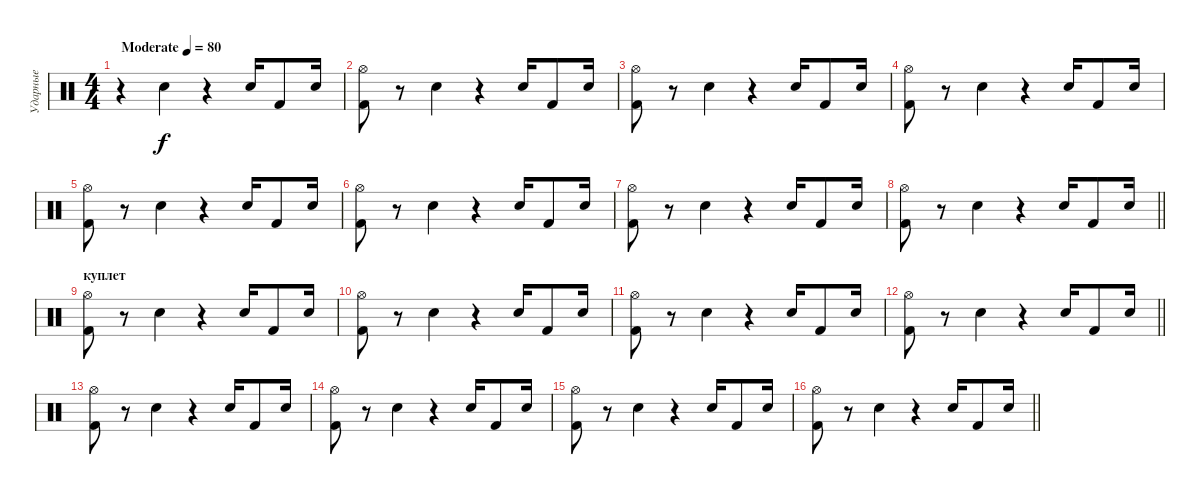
\track ("Ударные" "Ударные") {instrument percussion}
\staff {score}
\articulation defaults
\ts (4 4)
\tempo (80 "Moderate")
\clef neutral
\ks c
r.4{dy f} "Hand Clap (hit)".4 r.4 "Hand Clap (hit)".16 "Kick (hit) 2".8 "Hand Clap (hit)".16 |
("Hi-Hat (open)" "Kick (hit) 2").8 r.8 "Hand Clap (hit)".4 r.4 "Hand Clap (hit)".16 "Kick (hit) 2".8 "Hand Clap (hit)".16 |
("Hi-Hat (open)" "Kick (hit) 2").8 r.8 "Hand Clap (hit)".4 r.4 "Hand Clap (hit)".16 "Kick (hit) 2".8 "Hand Clap (hit)".16 |
("Hi-Hat (open)" "Kick (hit) 2").8 r.8 "Hand Clap (hit)".4 r.4 "Hand Clap (hit)".16 "Kick (hit) 2".8 "Hand Clap (hit)".16 |
("Hi-Hat (open)" "Kick (hit) 2").8 r.8 "Hand Clap (hit)".4 r.4 "Hand Clap (hit)".16 "Kick (hit) 2".8 "Hand Clap (hit)".16 |
("Hi-Hat (open)" "Kick (hit) 2").8 r.8 "Hand Clap (hit)".4 r.4 "Hand Clap (hit)".16 "Kick (hit) 2".8 "Hand Clap (hit)".16 |
("Hi-Hat (open)" "Kick (hit) 2").8 r.8 "Hand Clap (hit)".4 r.4 "Hand Clap (hit)".16 "Kick (hit) 2".8 "Hand Clap (hit)".16 |
\barLineRight lightlight
("Hi-Hat (open)" "Kick (hit) 2").8 r.8 "Hand Clap (hit)".4 r.4 "Hand Clap (hit)".16 "Kick (hit) 2".8 "Hand Clap (hit)".16 |
\section ("" "куплет")
("Hi-Hat (open)" "Kick (hit) 2").8 r.8 "Hand Clap (hit)".4 r.4 "Hand Clap (hit)".16 "Kick (hit) 2".8 "Hand Clap (hit)".16 |
("Hi-Hat (open)" "Kick (hit) 2").8 r.8 "Hand Clap (hit)".4 r.4 "Hand Clap (hit)".16 "Kick (hit) 2".8 "Hand Clap (hit)".16 |
("Hi-Hat (open)" "Kick (hit) 2").8 r.8 "Hand Clap (hit)".4 r.4 "Hand Clap (hit)".16 "Kick (hit) 2".8 "Hand Clap (hit)".16 |
\barLineRight lightlight
("Hi-Hat (open)" "Kick (hit) 2").8 r.8 "Hand Clap (hit)".4 r.4 "Hand Clap (hit)".16 "Kick (hit) 2".8 "Hand Clap (hit)".16 |
("Hi-Hat (open)" "Kick (hit) 2").8 r.8 "Hand Clap (hit)".4 r.4 "Hand Clap (hit)".16 "Kick (hit) 2".8 "Hand Clap (hit)".16 |
("Hi-Hat (open)" "Kick (hit) 2").8 r.8 "Hand Clap (hit)".4 r.4 "Hand Clap (hit)".16 "Kick (hit) 2".8 "Hand Clap (hit)".16 |
("Hi-Hat (open)" "Kick (hit) 2").8 r.8 "Hand Clap (hit)".4 r.4 "Hand Clap (hit)".16 "Kick (hit) 2".8 "Hand Clap (hit)".16 |
\barLineRight lightlight
("Hi-Hat (open)" "Kick (hit) 2").8 r.8 "Hand Clap (hit)".4 r.4 "Hand Clap (hit)".16 "Kick (hit) 2".8 "Hand Clap (hit)".16
